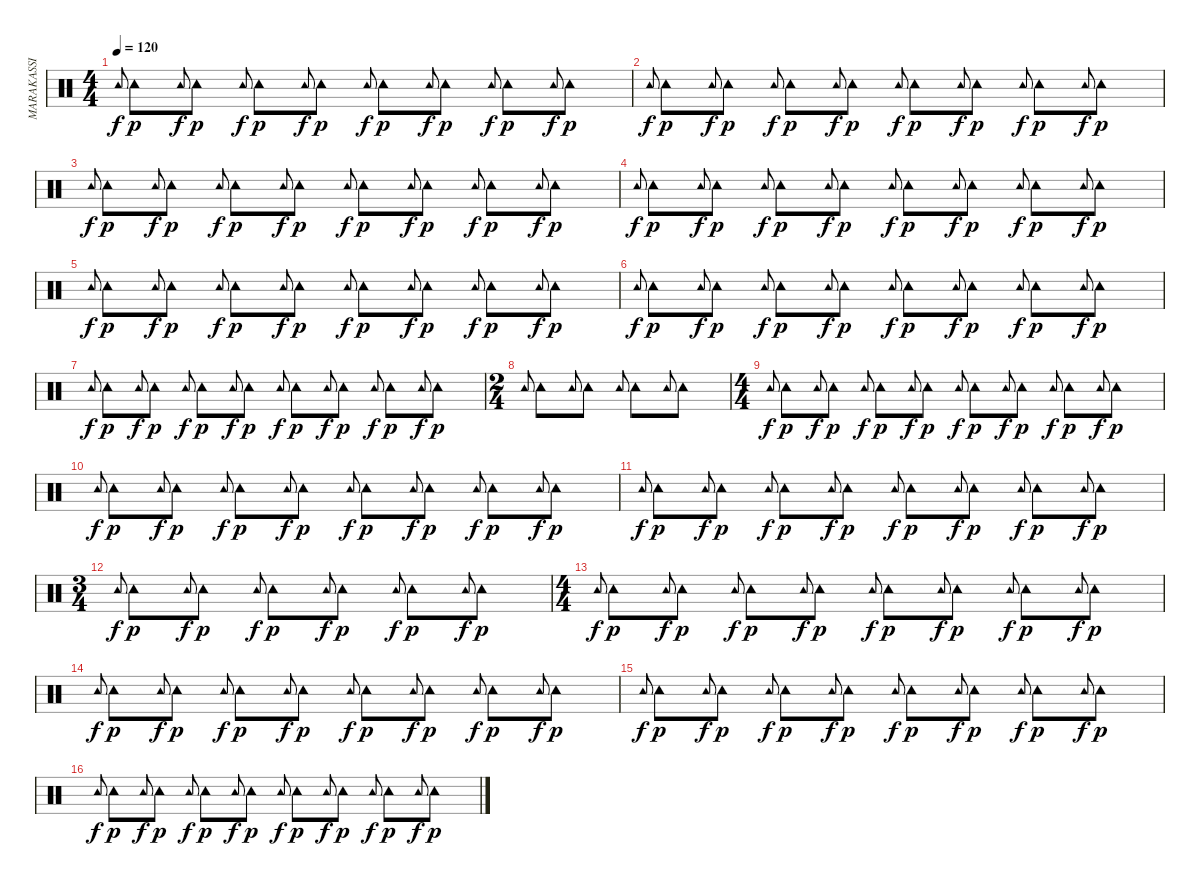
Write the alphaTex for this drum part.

\track ("MARAKASSI" "MARAKASSI") {instrument percussion}
\staff {score}
\articulation defaults
\ts (4 4)
\tempo 120
\clef neutral
\ks c "Tambourine (hit)".8{gr onbeat dy f} "Tambourine (hit)".8{dy p} "Tambourine (hit)".8{gr onbeat dy f} "Tambourine (hit)".8{dy p} "Tambourine (hit)".8{gr onbeat dy f} "Tambourine (hit)".8{dy p} "Tambourine (hit)".8{gr onbeat dy f} "Tambourine (hit)".8{dy p} "Tambourine (hit)".8{gr onbeat dy f} "Tambourine (hit)".8{dy p} "Tambourine (hit)".8{gr onbeat dy f} "Tambourine (hit)".8{dy p} "Tambourine (hit)".8{gr onbeat dy f} "Tambourine (hit)".8{dy p} "Tambourine (hit)".8{gr onbeat dy f} "Tambourine (hit)".8{dy p}
|
"Tambourine (hit)".8{gr onbeat dy f} "Tambourine (hit)".8{dy p} "Tambourine (hit)".8{gr onbeat dy f} "Tambourine (hit)".8{dy p} "Tambourine (hit)".8{gr onbeat dy f} "Tambourine (hit)".8{dy p} "Tambourine (hit)".8{gr onbeat dy f} "Tambourine (hit)".8{dy p} "Tambourine (hit)".8{gr onbeat dy f} "Tambourine (hit)".8{dy p} "Tambourine (hit)".8{gr onbeat dy f} "Tambourine (hit)".8{dy p} "Tambourine (hit)".8{gr onbeat dy f} "Tambourine (hit)".8{dy p} "Tambourine (hit)".8{gr onbeat dy f} "Tambourine (hit)".8{dy p} |
"Tambourine (hit)".8{gr onbeat dy f} "Tambourine (hit)".8{dy p} "Tambourine (hit)".8{gr onbeat dy f} "Tambourine (hit)".8{dy p} "Tambourine (hit)".8{gr onbeat dy f} "Tambourine (hit)".8{dy p} "Tambourine (hit)".8{gr onbeat dy f} "Tambourine (hit)".8{dy p} "Tambourine (hit)".8{gr onbeat dy f} "Tambourine (hit)".8{dy p} "Tambourine (hit)".8{gr onbeat dy f} "Tambourine (hit)".8{dy p} "Tambourine (hit)".8{gr onbeat dy f} "Tambourine (hit)".8{dy p} "Tambourine (hit)".8{gr onbeat dy f} "Tambourine (hit)".8{dy p} |
"Tambourine (hit)".8{gr onbeat dy f} "Tambourine (hit)".8{dy p} "Tambourine (hit)".8{gr onbeat dy f} "Tambourine (hit)".8{dy p} "Tambourine (hit)".8{gr onbeat dy f} "Tambourine (hit)".8{dy p} "Tambourine (hit)".8{gr onbeat dy f} "Tambourine (hit)".8{dy p} "Tambourine (hit)".8{gr onbeat dy f} "Tambourine (hit)".8{dy p} "Tambourine (hit)".8{gr onbeat dy f} "Tambourine (hit)".8{dy p} "Tambourine (hit)".8{gr onbeat dy f} "Tambourine (hit)".8{dy p} "Tambourine (hit)".8{gr onbeat dy f} "Tambourine (hit)".8{dy p} |
"Tambourine (hit)".8{gr onbeat dy f} "Tambourine (hit)".8{dy p} "Tambourine (hit)".8{gr onbeat dy f} "Tambourine (hit)".8{dy p} "Tambourine (hit)".8{gr onbeat dy f} "Tambourine (hit)".8{dy p} "Tambourine (hit)".8{gr onbeat dy f} "Tambourine (hit)".8{dy p} "Tambourine (hit)".8{gr onbeat dy f} "Tambourine (hit)".8{dy p} "Tambourine (hit)".8{gr onbeat dy f} "Tambourine (hit)".8{dy p} "Tambourine (hit)".8{gr onbeat dy f} "Tambourine (hit)".8{dy p} "Tambourine (hit)".8{gr onbeat dy f} "Tambourine (hit)".8{dy p} |
"Tambourine (hit)".8{gr onbeat dy f} "Tambourine (hit)".8{dy p} "Tambourine (hit)".8{gr onbeat dy f} "Tambourine (hit)".8{dy p} "Tambourine (hit)".8{gr onbeat dy f} "Tambourine (hit)".8{dy p} "Tambourine (hit)".8{gr onbeat dy f} "Tambourine (hit)".8{dy p} "Tambourine (hit)".8{gr onbeat dy f} "Tambourine (hit)".8{dy p} "Tambourine (hit)".8{gr onbeat dy f} "Tambourine (hit)".8{dy p} "Tambourine (hit)".8{gr onbeat dy f} "Tambourine (hit)".8{dy p} "Tambourine (hit)".8{gr onbeat dy f} "Tambourine (hit)".8{dy p} |
"Tambourine (hit)".8{gr onbeat dy f} "Tambourine (hit)".8{dy p} "Tambourine (hit)".8{gr onbeat dy f} "Tambourine (hit)".8{dy p} "Tambourine (hit)".8{gr onbeat dy f} "Tambourine (hit)".8{dy p} "Tambourine (hit)".8{gr onbeat dy f} "Tambourine (hit)".8{dy p} "Tambourine (hit)".8{gr onbeat dy f} "Tambourine (hit)".8{dy p} "Tambourine (hit)".8{gr onbeat dy f} "Tambourine (hit)".8{dy p} "Tambourine (hit)".8{gr onbeat dy f} "Tambourine (hit)".8{dy p} "Tambourine (hit)".8{gr onbeat dy f} "Tambourine (hit)".8{dy p} |
\ts (2 4)
"Tambourine (hit)".8{gr onbeat} "Tambourine (hit)".8 "Tambourine (hit)".8{gr onbeat} "Tambourine (hit)".8 "Tambourine (hit)".8{gr onbeat} "Tambourine (hit)".8 "Tambourine (hit)".8{gr onbeat} "Tambourine (hit)".8 |
\ts (4 4)
"Tambourine (hit)".8{gr onbeat dy f} "Tambourine (hit)".8{dy p} "Tambourine (hit)".8{gr onbeat dy f} "Tambourine (hit)".8{dy p} "Tambourine (hit)".8{gr onbeat dy f} "Tambourine (hit)".8{dy p} "Tambourine (hit)".8{gr onbeat dy f} "Tambourine (hit)".8{dy p} "Tambourine (hit)".8{gr onbeat dy f} "Tambourine (hit)".8{dy p} "Tambourine (hit)".8{gr onbeat dy f} "Tambourine (hit)".8{dy p} "Tambourine (hit)".8{gr onbeat dy f} "Tambourine (hit)".8{dy p} "Tambourine (hit)".8{gr onbeat dy f} "Tambourine (hit)".8{dy p} |
"Tambourine (hit)".8{gr onbeat dy f} "Tambourine (hit)".8{dy p} "Tambourine (hit)".8{gr onbeat dy f} "Tambourine (hit)".8{dy p} "Tambourine (hit)".8{gr onbeat dy f} "Tambourine (hit)".8{dy p} "Tambourine (hit)".8{gr onbeat dy f} "Tambourine (hit)".8{dy p} "Tambourine (hit)".8{gr onbeat dy f} "Tambourine (hit)".8{dy p} "Tambourine (hit)".8{gr onbeat dy f} "Tambourine (hit)".8{dy p} "Tambourine (hit)".8{gr onbeat dy f} "Tambourine (hit)".8{dy p} "Tambourine (hit)".8{gr onbeat dy f} "Tambourine (hit)".8{dy p} |
"Tambourine (hit)".8{gr onbeat dy f} "Tambourine (hit)".8{dy p} "Tambourine (hit)".8{gr onbeat dy f} "Tambourine (hit)".8{dy p} "Tambourine (hit)".8{gr onbeat dy f} "Tambourine (hit)".8{dy p} "Tambourine (hit)".8{gr onbeat dy f} "Tambourine (hit)".8{dy p} "Tambourine (hit)".8{gr onbeat dy f} "Tambourine (hit)".8{dy p} "Tambourine (hit)".8{gr onbeat dy f} "Tambourine (hit)".8{dy p} "Tambourine (hit)".8{gr onbeat dy f} "Tambourine (hit)".8{dy p} "Tambourine (hit)".8{gr onbeat dy f} "Tambourine (hit)".8{dy p} |
\ts (3 4)
"Tambourine (hit)".8{gr onbeat dy f} "Tambourine (hit)".8{dy p} "Tambourine (hit)".8{gr onbeat dy f} "Tambourine (hit)".8{dy p} "Tambourine (hit)".8{gr onbeat dy f} "Tambourine (hit)".8{dy p} "Tambourine (hit)".8{gr onbeat dy f} "Tambourine (hit)".8{dy p} "Tambourine (hit)".8{gr onbeat dy f} "Tambourine (hit)".8{dy p} "Tambourine (hit)".8{gr onbeat dy f} "Tambourine (hit)".8{dy p} |
\ts (4 4)
"Tambourine (hit)".8{gr onbeat dy f} "Tambourine (hit)".8{dy p} "Tambourine (hit)".8{gr onbeat dy f} "Tambourine (hit)".8{dy p} "Tambourine (hit)".8{gr onbeat dy f} "Tambourine (hit)".8{dy p} "Tambourine (hit)".8{gr onbeat dy f} "Tambourine (hit)".8{dy p} "Tambourine (hit)".8{gr onbeat dy f} "Tambourine (hit)".8{dy p} "Tambourine (hit)".8{gr onbeat dy f} "Tambourine (hit)".8{dy p} "Tambourine (hit)".8{gr onbeat dy f} "Tambourine (hit)".8{dy p} "Tambourine (hit)".8{gr onbeat dy f} "Tambourine (hit)".8{dy p} |
"Tambourine (hit)".8{gr onbeat dy f} "Tambourine (hit)".8{dy p} "Tambourine (hit)".8{gr onbeat dy f} "Tambourine (hit)".8{dy p} "Tambourine (hit)".8{gr onbeat dy f} "Tambourine (hit)".8{dy p} "Tambourine (hit)".8{gr onbeat dy f} "Tambourine (hit)".8{dy p} "Tambourine (hit)".8{gr onbeat dy f} "Tambourine (hit)".8{dy p} "Tambourine (hit)".8{gr onbeat dy f} "Tambourine (hit)".8{dy p} "Tambourine (hit)".8{gr onbeat dy f} "Tambourine (hit)".8{dy p} "Tambourine (hit)".8{gr onbeat dy f} "Tambourine (hit)".8{dy p} |
"Tambourine (hit)".8{gr onbeat dy f} "Tambourine (hit)".8{dy p} "Tambourine (hit)".8{gr onbeat dy f} "Tambourine (hit)".8{dy p} "Tambourine (hit)".8{gr onbeat dy f} "Tambourine (hit)".8{dy p} "Tambourine (hit)".8{gr onbeat dy f} "Tambourine (hit)".8{dy p} "Tambourine (hit)".8{gr onbeat dy f} "Tambourine (hit)".8{dy p} "Tambourine (hit)".8{gr onbeat dy f} "Tambourine (hit)".8{dy p} "Tambourine (hit)".8{gr onbeat dy f} "Tambourine (hit)".8{dy p} "Tambourine (hit)".8{gr onbeat dy f} "Tambourine (hit)".8{dy p} |
"Tambourine (hit)".8{gr onbeat dy f} "Tambourine (hit)".8{dy p} "Tambourine (hit)".8{gr onbeat dy f} "Tambourine (hit)".8{dy p} "Tambourine (hit)".8{gr onbeat dy f} "Tambourine (hit)".8{dy p} "Tambourine (hit)".8{gr onbeat dy f} "Tambourine (hit)".8{dy p} "Tambourine (hit)".8{gr onbeat dy f} "Tambourine (hit)".8{dy p} "Tambourine (hit)".8{gr onbeat dy f} "Tambourine (hit)".8{dy p} "Tambourine (hit)".8{gr onbeat dy f} "Tambourine (hit)".8{dy p} "Tambourine (hit)".8{gr onbeat dy f} "Tambourine (hit)".8{dy p}
